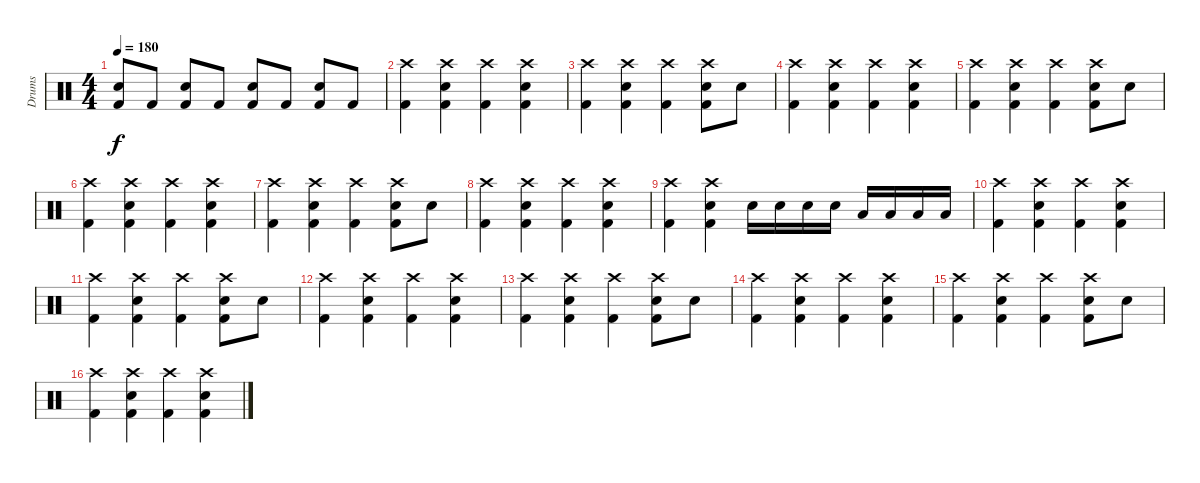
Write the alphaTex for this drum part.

\track ("Drums" "Drums") {instrument percussion}
\staff {score}
\articulation defaults
\ts (4 4)
\tempo 180
\clef neutral
\ks c
("Snare (hit) 2" "Kick (hit) 2").8{dy f} "Kick (hit) 2".8 ("Snare (hit) 2" "Kick (hit) 2").8 "Kick (hit) 2".8 ("Snare (hit) 2" "Kick (hit) 2").8 "Kick (hit) 2".8 ("Snare (hit) 2" "Kick (hit) 2").8 "Kick (hit) 2".8 |
("Crash high (hit)" "Kick (hit) 2").4 ("Crash high (hit)" "Snare (hit) 2" "Kick (hit) 2").4 ("Crash high (hit)" "Kick (hit) 2").4 ("Crash high (hit)" "Snare (hit) 2" "Kick (hit) 2").4 |
("Crash high (hit)" "Kick (hit) 2").4 ("Crash high (hit)" "Snare (hit) 2" "Kick (hit) 2").4 ("Crash high (hit)" "Kick (hit) 2").4 ("Crash high (hit)" "Snare (hit) 2" "Kick (hit) 2").8 "Snare (hit) 2".8 |
("Crash high (hit)" "Kick (hit) 2").4 ("Crash high (hit)" "Snare (hit) 2" "Kick (hit) 2").4 ("Crash high (hit)" "Kick (hit) 2").4 ("Crash high (hit)" "Snare (hit) 2" "Kick (hit) 2").4 |
("Crash high (hit)" "Kick (hit) 2").4 ("Crash high (hit)" "Snare (hit) 2" "Kick (hit) 2").4 ("Crash high (hit)" "Kick (hit) 2").4 ("Crash high (hit)" "Snare (hit) 2" "Kick (hit) 2").8 "Snare (hit) 2".8 |
("Crash high (hit)" "Kick (hit) 2").4 ("Crash high (hit)" "Snare (hit) 2" "Kick (hit) 2").4 ("Crash high (hit)" "Kick (hit) 2").4 ("Crash high (hit)" "Snare (hit) 2" "Kick (hit) 2").4 |
("Crash high (hit)" "Kick (hit) 2").4 ("Crash high (hit)" "Snare (hit) 2" "Kick (hit) 2").4 ("Crash high (hit)" "Kick (hit) 2").4 ("Crash high (hit)" "Snare (hit) 2" "Kick (hit) 2").8 "Snare (hit) 2".8 |
("Crash high (hit)" "Kick (hit) 2").4 ("Crash high (hit)" "Snare (hit) 2" "Kick (hit) 2").4 ("Crash high (hit)" "Kick (hit) 2").4 ("Crash high (hit)" "Snare (hit) 2" "Kick (hit) 2").4 |
("Crash high (hit)" "Kick (hit) 2").4 ("Crash high (hit)" "Snare (hit) 2" "Kick (hit) 2").4 "Snare (hit) 2".16 "Snare (hit) 2".16 "Snare (hit) 2".16 "Snare (hit) 2".16 "Low Floor Tom (hit)".16 "Low Floor Tom (hit)".16 "Low Floor Tom (hit)".16 "Low Floor Tom (hit)".16 |
("Crash high (hit)" "Kick (hit) 2").4 ("Crash high (hit)" "Snare (hit) 2" "Kick (hit) 2").4 ("Crash high (hit)" "Kick (hit) 2").4 ("Crash high (hit)" "Snare (hit) 2" "Kick (hit) 2").4 |
("Crash high (hit)" "Kick (hit) 2").4 ("Crash high (hit)" "Snare (hit) 2" "Kick (hit) 2").4 ("Crash high (hit)" "Kick (hit) 2").4 ("Crash high (hit)" "Snare (hit) 2" "Kick (hit) 2").8 "Snare (hit) 2".8 |
("Crash high (hit)" "Kick (hit) 2").4 ("Crash high (hit)" "Snare (hit) 2" "Kick (hit) 2").4 ("Crash high (hit)" "Kick (hit) 2").4 ("Crash high (hit)" "Snare (hit) 2" "Kick (hit) 2").4 |
("Crash high (hit)" "Kick (hit) 2").4 ("Crash high (hit)" "Snare (hit) 2" "Kick (hit) 2").4 ("Crash high (hit)" "Kick (hit) 2").4 ("Crash high (hit)" "Snare (hit) 2" "Kick (hit) 2").8 "Snare (hit) 2".8 |
("Crash high (hit)" "Kick (hit) 2").4 ("Crash high (hit)" "Snare (hit) 2" "Kick (hit) 2").4 ("Crash high (hit)" "Kick (hit) 2").4 ("Crash high (hit)" "Snare (hit) 2" "Kick (hit) 2").4 |
("Crash high (hit)" "Kick (hit) 2").4 ("Crash high (hit)" "Snare (hit) 2" "Kick (hit) 2").4 ("Crash high (hit)" "Kick (hit) 2").4 ("Crash high (hit)" "Snare (hit) 2" "Kick (hit) 2").8 "Snare (hit) 2".8 |
("Crash high (hit)" "Kick (hit) 2").4 ("Crash high (hit)" "Snare (hit) 2" "Kick (hit) 2").4 ("Crash high (hit)" "Kick (hit) 2").4 ("Crash high (hit)" "Snare (hit) 2" "Kick (hit) 2").4
